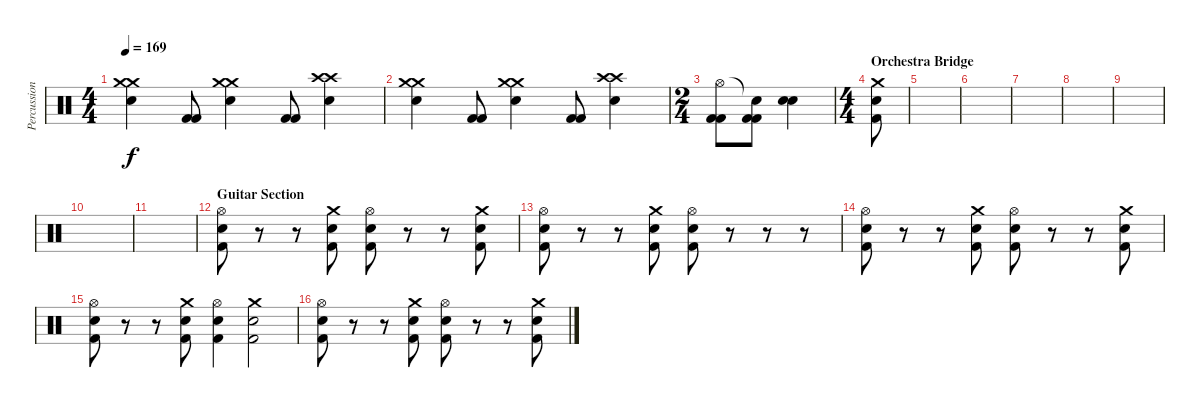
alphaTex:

\track ("Percussion" "Percussion") {instrument percussion}
\staff {score}
\articulation defaults
\ts (4 4)
\tempo 169
\clef neutral
\ks c
("Crash medium (hit)" "Crash medium (hit)" "Snare (hit) 2").4{dy f} ("Kick (hit) 2" "Kick (hit) 2").8 ("Crash medium (hit)" "Crash medium (hit)" "Snare (hit) 2").4 ("Kick (hit) 2" "Kick (hit) 2").8 ("Crash high (hit)" "Crash high (hit)" "Snare (hit) 2").4 |
("Crash medium (hit)" "Crash medium (hit)" "Snare (hit) 2").4 ("Kick (hit) 2" "Kick (hit) 2").8 ("Crash medium (hit)" "Crash medium (hit)" "Snare (hit) 2").4 ("Kick (hit) 2" "Kick (hit) 2").8 ("Crash high (hit)" "Crash high (hit)" "Snare (hit) 2").4 |
\ts (2 4)
("Kick (hit) 2" "Kick (hit) 2" "Hi-Hat (open)").8 ("Kick (hit) 2" "Kick (hit) 2" "Snare (hit)"{t}).8 ("Snare (hit) 2" "Snare (hit) 2").4 |
\ts (4 4)
\section ("" "Orchestra Bridge")
("Crash medium (hit)" "Snare (hit) 2" "Kick (hit) 2").8 |
|
|
|
|
|
|
|
\section ("" "Guitar Section")
("Hi-Hat (open)" "Snare (hit) 2" "Kick (hit) 2").8 r.8 r.8 ("Crash medium (hit)" "Snare (hit) 2" "Kick (hit) 2").8 ("Hi-Hat (open)" "Snare (hit) 2" "Kick (hit) 2").8 r.8 r.8 ("Crash medium (hit)" "Snare (hit) 2" "Kick (hit) 2").8 |
("Hi-Hat (open)" "Snare (hit) 2" "Kick (hit) 2").8 r.8 r.8 ("Crash medium (hit)" "Snare (hit) 2" "Kick (hit) 2").8 ("Hi-Hat (open)" "Snare (hit) 2" "Kick (hit) 2").8 r.8 r.8 r.8 |
("Hi-Hat (open)" "Snare (hit) 2" "Kick (hit) 2").8 r.8 r.8 ("Crash medium (hit)" "Snare (hit) 2" "Kick (hit) 2").8 ("Hi-Hat (open)" "Snare (hit) 2" "Kick (hit) 2").8 r.8 r.8 ("Crash medium (hit)" "Snare (hit) 2" "Kick (hit) 2").8 |
("Hi-Hat (open)" "Snare (hit) 2" "Kick (hit) 2").8 r.8 r.8 ("Crash medium (hit)" "Snare (hit) 2" "Kick (hit) 2").8 ("Hi-Hat (open)" "Snare (hit) 2" "Kick (hit) 2").4 ("Crash medium (hit)" "Snare (hit) 2" "Kick (hit) 2").2 |
("Hi-Hat (open)" "Snare (hit) 2" "Kick (hit) 2").8 r.8 r.8 ("Crash medium (hit)" "Snare (hit) 2" "Kick (hit) 2").8 ("Hi-Hat (open)" "Snare (hit) 2" "Kick (hit) 2").8 r.8 r.8 ("Crash medium (hit)" "Snare (hit) 2" "Kick (hit) 2").8
